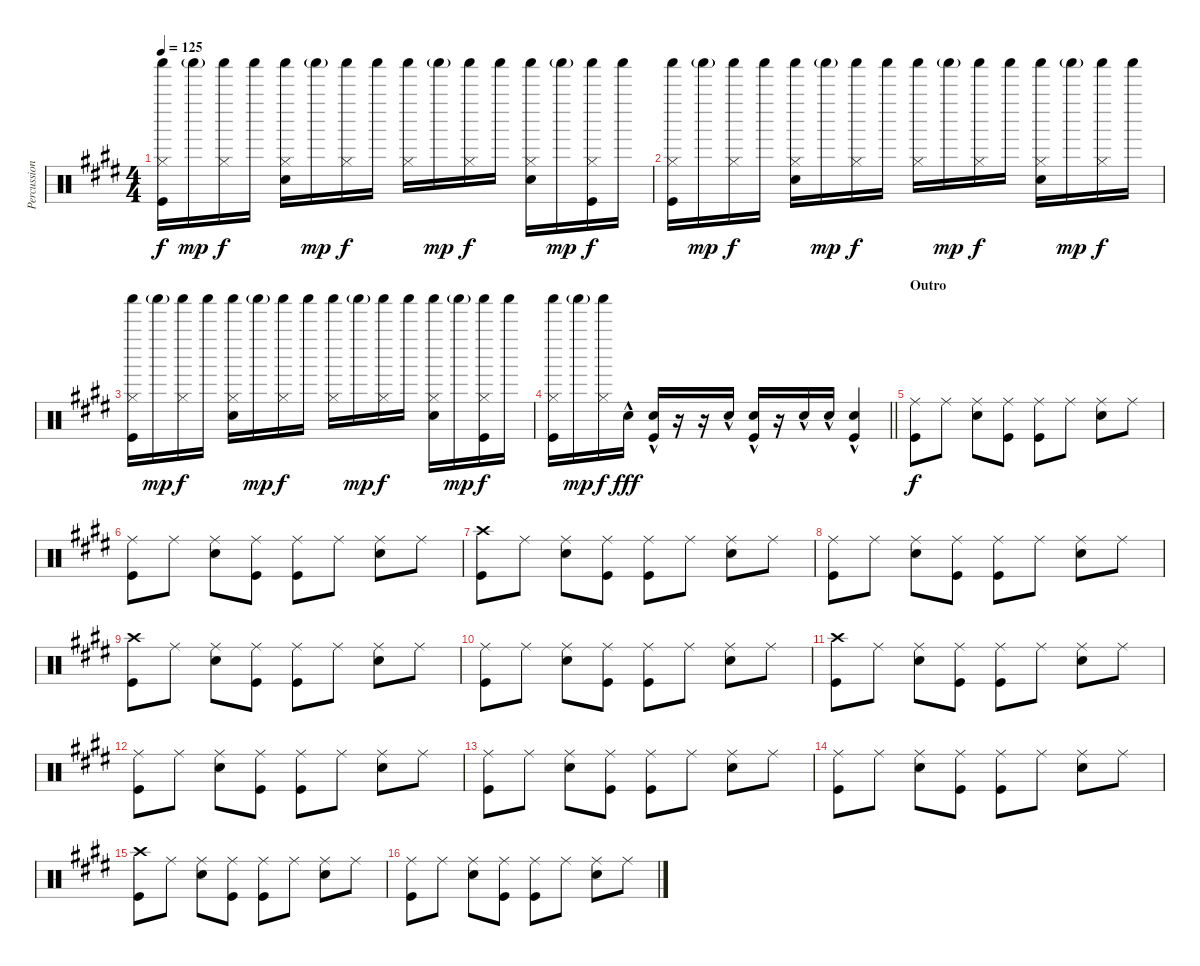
\track ("Percussion" "Percussion") {instrument percussion}
\staff {score}
\articulation defaults
\ts (4 4)
\tempo 125
\clef neutral
\ks c#minor
("Hi-Hat (closed)" "Shaker (hit)" "Kick (hit)").16{dy f} "Shaker (hit)"{g}.16{dy mp} ("Hi-Hat (closed)" "Shaker (hit)").16{dy f} "Shaker (hit)".16 ("Hi-Hat (closed)" "Shaker (hit)" "Electric Snare (hit)").16 "Shaker (hit)"{g}.16{dy mp} ("Hi-Hat (closed)" "Shaker (hit)").16{dy f} "Shaker (hit)".16 ("Hi-Hat (closed)" "Shaker (hit)").16 "Shaker (hit)"{g}.16{dy mp} ("Hi-Hat (closed)" "Shaker (hit)").16{dy f} "Shaker (hit)".16 ("Hi-Hat (closed)" "Shaker (hit)" "Electric Snare (hit)").16 "Shaker (hit)"{g}.16{dy mp} ("Hi-Hat (closed)" "Shaker (hit)" "Kick (hit)").16{dy f} "Shaker (hit)".16 |
("Hi-Hat (closed)" "Shaker (hit)" "Kick (hit)").16 "Shaker (hit)"{g}.16{dy mp} ("Hi-Hat (closed)" "Shaker (hit)").16{dy f} "Shaker (hit)".16 ("Hi-Hat (closed)" "Shaker (hit)" "Electric Snare (hit)").16 "Shaker (hit)"{g}.16{dy mp} ("Hi-Hat (closed)" "Shaker (hit)").16{dy f} "Shaker (hit)".16 ("Hi-Hat (closed)" "Shaker (hit)").16 "Shaker (hit)"{g}.16{dy mp} ("Hi-Hat (closed)" "Shaker (hit)").16{dy f} "Shaker (hit)".16 ("Hi-Hat (closed)" "Shaker (hit)" "Electric Snare (hit)").16 "Shaker (hit)"{g}.16{dy mp} ("Hi-Hat (closed)" "Shaker (hit)").16{dy f} "Shaker (hit)".16 |
("Hi-Hat (closed)" "Shaker (hit)" "Kick (hit)").16 "Shaker (hit)"{g}.16{dy mp} ("Hi-Hat (closed)" "Shaker (hit)").16{dy f} "Shaker (hit)".16 ("Hi-Hat (closed)" "Shaker (hit)" "Electric Snare (hit)").16 "Shaker (hit)"{g}.16{dy mp} ("Hi-Hat (closed)" "Shaker (hit)").16{dy f} "Shaker (hit)".16 ("Hi-Hat (closed)" "Shaker (hit)").16 "Shaker (hit)"{g}.16{dy mp} ("Hi-Hat (closed)" "Shaker (hit)").16{dy f} "Shaker (hit)".16 ("Hi-Hat (closed)" "Shaker (hit)" "Electric Snare (hit)").16 "Shaker (hit)"{g}.16{dy mp} ("Hi-Hat (closed)" "Shaker (hit)" "Kick (hit)").16{dy f} "Shaker (hit)".16 |
\barLineRight lightlight
("Hi-Hat (closed)" "Shaker (hit)" "Kick (hit)").16 "Shaker (hit)"{g}.16{dy mp} ("Hi-Hat (closed)" "Shaker (hit)").16{dy f} "Electric Snare (hit)"{hac}.16{dy fff} ("Electric Snare (hit)"{hac} "Kick (hit)"{hac}).16 r.16 r.16 "Electric Snare (hit)"{hac}.16 ("Electric Snare (hit)"{hac} "Kick (hit)"{hac}).16 r.16 "Electric Snare (hit)"{hac}.16 "Electric Snare (hit)"{hac}.16 ("Electric Snare (hit)"{hac} "Kick (hit)"{hac}).4 |
\section ("" "Outro")
("Ride (middle)" "Kick (hit)").8{dy f} "Ride (middle)".8 ("Ride (middle)" "Electric Snare (hit)").8 ("Ride (middle)" "Kick (hit)").8 ("Ride (middle)" "Kick (hit)").8 "Ride (middle)".8 ("Ride (middle)" "Electric Snare (hit)").8 "Ride (middle)".8 |
("Ride (middle)" "Kick (hit)").8 "Ride (middle)".8 ("Ride (middle)" "Electric Snare (hit)").8 ("Ride (middle)" "Kick (hit)").8 ("Ride (middle)" "Kick (hit)").8 "Ride (middle)".8 ("Ride (middle)" "Electric Snare (hit)").8 "Ride (middle)".8 |
("Crash high (hit)" "Kick (hit)").8 "Ride (middle)".8 ("Ride (middle)" "Electric Snare (hit)").8 ("Ride (middle)" "Kick (hit)").8 ("Ride (middle)" "Kick (hit)").8 "Ride (middle)".8 ("Ride (middle)" "Electric Snare (hit)").8 "Ride (middle)".8 |
("Ride (middle)" "Kick (hit)").8 "Ride (middle)".8 ("Ride (middle)" "Electric Snare (hit)").8 ("Ride (middle)" "Kick (hit)").8 ("Ride (middle)" "Kick (hit)").8 "Ride (middle)".8 ("Ride (middle)" "Electric Snare (hit)").8 "Ride (middle)".8 |
("Crash high (hit)" "Kick (hit)").8 "Ride (middle)".8 ("Ride (middle)" "Electric Snare (hit)").8 ("Ride (middle)" "Kick (hit)").8 ("Ride (middle)" "Kick (hit)").8 "Ride (middle)".8 ("Ride (middle)" "Electric Snare (hit)").8 "Ride (middle)".8 |
("Ride (middle)" "Kick (hit)").8 "Ride (middle)".8 ("Ride (middle)" "Electric Snare (hit)").8 ("Ride (middle)" "Kick (hit)").8 ("Ride (middle)" "Kick (hit)").8 "Ride (middle)".8 ("Ride (middle)" "Electric Snare (hit)").8 "Ride (middle)".8 |
("Crash high (hit)" "Kick (hit)").8 "Ride (middle)".8 ("Ride (middle)" "Electric Snare (hit)").8 ("Ride (middle)" "Kick (hit)").8 ("Ride (middle)" "Kick (hit)").8 "Ride (middle)".8 ("Ride (middle)" "Electric Snare (hit)").8 "Ride (middle)".8 |
("Ride (middle)" "Kick (hit)").8 "Ride (middle)".8 ("Ride (middle)" "Electric Snare (hit)").8 ("Ride (middle)" "Kick (hit)").8 ("Ride (middle)" "Kick (hit)").8 "Ride (middle)".8 ("Ride (middle)" "Electric Snare (hit)").8 "Ride (middle)".8 |
("Ride (middle)" "Kick (hit)").8 "Ride (middle)".8 ("Ride (middle)" "Electric Snare (hit)").8 ("Ride (middle)" "Kick (hit)").8 ("Ride (middle)" "Kick (hit)").8 "Ride (middle)".8 ("Ride (middle)" "Electric Snare (hit)").8 "Ride (middle)".8 |
("Ride (middle)" "Kick (hit)").8 "Ride (middle)".8 ("Ride (middle)" "Electric Snare (hit)").8 ("Ride (middle)" "Kick (hit)").8 ("Ride (middle)" "Kick (hit)").8 "Ride (middle)".8 ("Ride (middle)" "Electric Snare (hit)").8 "Ride (middle)".8 |
("Crash high (hit)" "Kick (hit)").8 "Ride (middle)".8 ("Ride (middle)" "Electric Snare (hit)").8 ("Ride (middle)" "Kick (hit)").8 ("Ride (middle)" "Kick (hit)").8 "Ride (middle)".8 ("Ride (middle)" "Electric Snare (hit)").8 "Ride (middle)".8 |
("Ride (middle)" "Kick (hit)").8 "Ride (middle)".8 ("Ride (middle)" "Electric Snare (hit)").8 ("Ride (middle)" "Kick (hit)").8 ("Ride (middle)" "Kick (hit)").8 "Ride (middle)".8 ("Ride (middle)" "Electric Snare (hit)").8 "Ride (middle)".8
